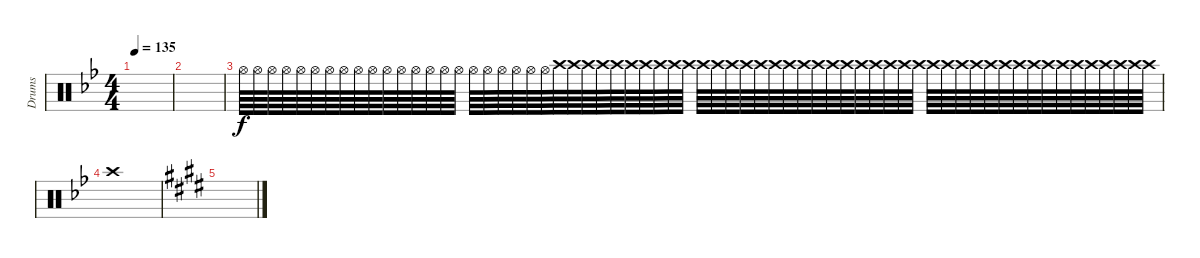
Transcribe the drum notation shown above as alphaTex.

\track ("Drums" "Drums") {instrument percussion}
\staff {score}
\articulation defaults
\ts (4 4)
\tempo 135
\clef neutral
\ks bb
|
|
"Hi-Hat (open)".64{volume 5} "Hi-Hat (open)".64 "Hi-Hat (open)".64 "Hi-Hat (open)".64 "Hi-Hat (open)".64 "Hi-Hat (open)".64 "Hi-Hat (open)".64 "Hi-Hat (open)".64 "Hi-Hat (open)".64{volume 8} "Hi-Hat (open)".64 "Hi-Hat (open)".64 "Hi-Hat (open)".64 "Hi-Hat (open)".64 "Hi-Hat (open)".64 "Hi-Hat (open)".64 "Hi-Hat (open)".64 "Hi-Hat (open)".64{volume 11} "Hi-Hat (open)".64 "Hi-Hat (open)".64 "Hi-Hat (open)".64 "Hi-Hat (open)".64 "Hi-Hat (open)".64 "Crash high (hit)".64{volume 13} "Crash high (hit)".64 "Crash high (hit)".64 "Crash high (hit)".64 "Crash high (hit)".64 "Crash high (hit)".64 "Crash high (hit)".64 "Crash high (hit)".64 "Crash high (hit)".64 "Crash high (hit)".64 "Crash high (hit)".64 "Crash high (hit)".64 "Crash high (hit)".64 "Crash high (hit)".64 "Crash high (hit)".64 "Crash high (hit)".64 "Crash high (hit)".64 "Crash high (hit)".64 "Crash high (hit)".64 "Crash high (hit)".64 "Crash high (hit)".64 "Crash high (hit)".64 "Crash high (hit)".64 "Crash high (hit)".64 "Crash high (hit)".64 "Crash high (hit)".64 "Crash high (hit)".64 "Crash high (hit)".64 "Crash high (hit)".64 "Crash high (hit)".64 "Crash high (hit)".64 "Crash high (hit)".64 "Crash high (hit)".64 "Crash high (hit)".64 "Crash high (hit)".64 "Crash high (hit)".64 "Crash high (hit)".64 "Crash high (hit)".64 "Crash high (hit)".64 "Crash high (hit)".64 "Crash high (hit)".64 "Crash high (hit)".64 |
"Crash high (hit)".1 |
\ks e
